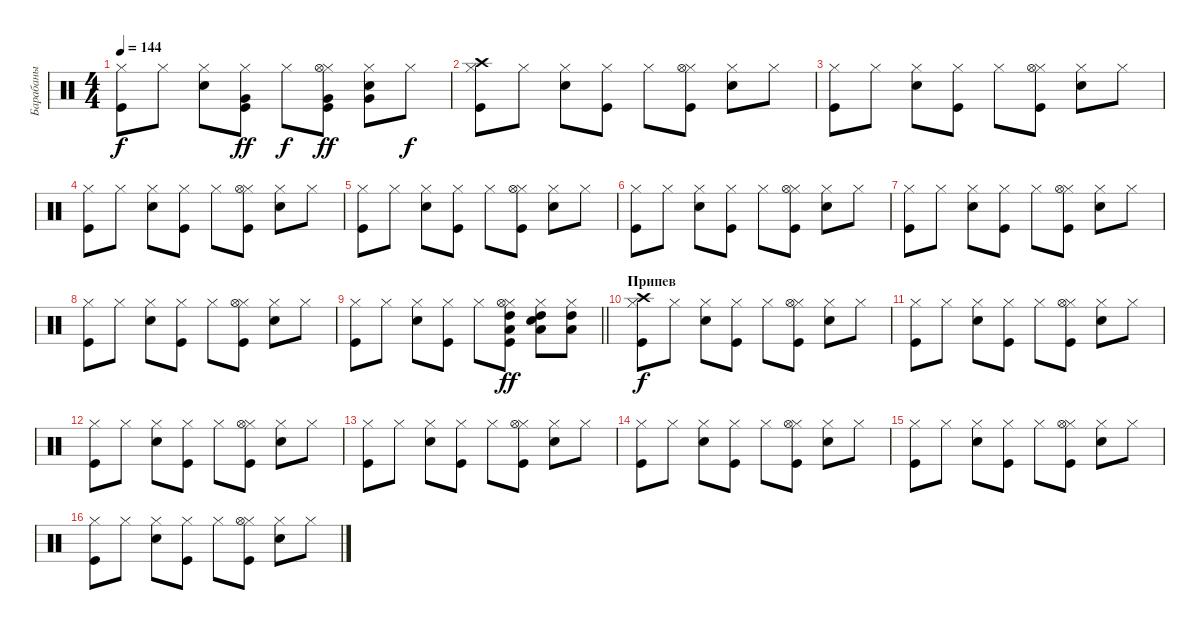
\track ("Барабаны" "Барабаны") {instrument percussion}
\staff {score}
\articulation defaults
\ts (4 4)
\tempo 144
\clef neutral
\ks c
("Kick (hit)" "Hi-Hat (closed)").8{dy f} "Hi-Hat (closed)".8 ("Snare (hit) 2" "Hi-Hat (closed)").8 ("Kick (hit)" "Hi-Hat (closed)" "Very Low Tom (hit)").8{dy ff} "Hi-Hat (closed)".8{dy f} ("Kick (hit)" "Hi-Hat (closed)" "Very Low Tom (hit)" "Hi-Hat (open)").8{dy ff} ("Snare (hit) 2" "Hi-Hat (closed)" "Very Low Tom (hit)").8 "Hi-Hat (closed)".8{dy f} |
("Kick (hit)" "Hi-Hat (closed)" "Crash high (hit)").8 "Hi-Hat (closed)".8 ("Snare (hit) 2" "Hi-Hat (closed)").8 ("Kick (hit)" "Hi-Hat (closed)").8 "Hi-Hat (closed)".8 ("Kick (hit)" "Hi-Hat (closed)" "Hi-Hat (open)").8 ("Snare (hit) 2" "Hi-Hat (closed)").8 "Hi-Hat (closed)".8 |
("Kick (hit)" "Hi-Hat (closed)").8 "Hi-Hat (closed)".8 ("Snare (hit) 2" "Hi-Hat (closed)").8 ("Kick (hit)" "Hi-Hat (closed)").8 "Hi-Hat (closed)".8 ("Kick (hit)" "Hi-Hat (closed)" "Hi-Hat (open)").8 ("Snare (hit) 2" "Hi-Hat (closed)").8 "Hi-Hat (closed)".8 |
("Kick (hit)" "Hi-Hat (closed)").8 "Hi-Hat (closed)".8 ("Snare (hit) 2" "Hi-Hat (closed)").8 ("Kick (hit)" "Hi-Hat (closed)").8 "Hi-Hat (closed)".8 ("Kick (hit)" "Hi-Hat (closed)" "Hi-Hat (open)").8 ("Snare (hit) 2" "Hi-Hat (closed)").8 "Hi-Hat (closed)".8 |
("Kick (hit)" "Hi-Hat (closed)").8 "Hi-Hat (closed)".8 ("Snare (hit) 2" "Hi-Hat (closed)").8 ("Kick (hit)" "Hi-Hat (closed)").8 "Hi-Hat (closed)".8 ("Kick (hit)" "Hi-Hat (closed)" "Hi-Hat (open)").8 ("Snare (hit) 2" "Hi-Hat (closed)").8 "Hi-Hat (closed)".8 |
("Kick (hit)" "Hi-Hat (closed)").8 "Hi-Hat (closed)".8 ("Snare (hit) 2" "Hi-Hat (closed)").8 ("Kick (hit)" "Hi-Hat (closed)").8 "Hi-Hat (closed)".8 ("Kick (hit)" "Hi-Hat (closed)" "Hi-Hat (open)").8 ("Snare (hit) 2" "Hi-Hat (closed)").8 "Hi-Hat (closed)".8 |
("Kick (hit)" "Hi-Hat (closed)").8 "Hi-Hat (closed)".8 ("Snare (hit) 2" "Hi-Hat (closed)").8 ("Kick (hit)" "Hi-Hat (closed)").8 "Hi-Hat (closed)".8 ("Kick (hit)" "Hi-Hat (closed)" "Hi-Hat (open)").8 ("Snare (hit) 2" "Hi-Hat (closed)").8 "Hi-Hat (closed)".8 |
("Kick (hit)" "Hi-Hat (closed)").8 "Hi-Hat (closed)".8 ("Snare (hit) 2" "Hi-Hat (closed)").8 ("Kick (hit)" "Hi-Hat (closed)").8 "Hi-Hat (closed)".8 ("Kick (hit)" "Hi-Hat (closed)" "Hi-Hat (open)").8 ("Snare (hit) 2" "Hi-Hat (closed)").8 "Hi-Hat (closed)".8 |
\barLineRight lightlight
("Kick (hit)" "Hi-Hat (closed)").8 "Hi-Hat (closed)".8 ("Snare (hit) 2" "Hi-Hat (closed)").8 ("Kick (hit)" "Hi-Hat (closed)").8 "Hi-Hat (closed)".8 ("Kick (hit)" "Hi-Hat (closed)" "Low Floor Tom (hit)" "High Tom (hit)" "Hi-Hat (open)").8{dy ff} ("Snare (hit) 2" "Hi-Hat (closed)" "Low Floor Tom (hit)" "High Tom (hit)").8 ("Hi-Hat (closed)" "Low Floor Tom (hit)" "High Tom (hit)").8 |
\section ("" "Припев")
("Kick (hit)" "Hi-Hat (closed)" "Crash high (hit)").8{dy f} "Hi-Hat (closed)".8 ("Snare (hit) 2" "Hi-Hat (closed)").8 ("Kick (hit)" "Hi-Hat (closed)").8 "Hi-Hat (closed)".8 ("Kick (hit)" "Hi-Hat (closed)" "Hi-Hat (open)").8 ("Snare (hit) 2" "Hi-Hat (closed)").8 "Hi-Hat (closed)".8 |
("Kick (hit)" "Hi-Hat (closed)").8 "Hi-Hat (closed)".8 ("Snare (hit) 2" "Hi-Hat (closed)").8 ("Kick (hit)" "Hi-Hat (closed)").8 "Hi-Hat (closed)".8 ("Kick (hit)" "Hi-Hat (closed)" "Hi-Hat (open)").8 ("Snare (hit) 2" "Hi-Hat (closed)").8 "Hi-Hat (closed)".8 |
("Kick (hit)" "Hi-Hat (closed)").8 "Hi-Hat (closed)".8 ("Snare (hit) 2" "Hi-Hat (closed)").8 ("Kick (hit)" "Hi-Hat (closed)").8 "Hi-Hat (closed)".8 ("Kick (hit)" "Hi-Hat (closed)" "Hi-Hat (open)").8 ("Snare (hit) 2" "Hi-Hat (closed)").8 "Hi-Hat (closed)".8 |
("Kick (hit)" "Hi-Hat (closed)").8 "Hi-Hat (closed)".8 ("Snare (hit) 2" "Hi-Hat (closed)").8 ("Kick (hit)" "Hi-Hat (closed)").8 "Hi-Hat (closed)".8 ("Kick (hit)" "Hi-Hat (closed)" "Hi-Hat (open)").8 ("Snare (hit) 2" "Hi-Hat (closed)").8 "Hi-Hat (closed)".8 |
("Kick (hit)" "Hi-Hat (closed)").8 "Hi-Hat (closed)".8 ("Snare (hit) 2" "Hi-Hat (closed)").8 ("Kick (hit)" "Hi-Hat (closed)").8 "Hi-Hat (closed)".8 ("Kick (hit)" "Hi-Hat (closed)" "Hi-Hat (open)").8 ("Snare (hit) 2" "Hi-Hat (closed)").8 "Hi-Hat (closed)".8 |
("Kick (hit)" "Hi-Hat (closed)").8 "Hi-Hat (closed)".8 ("Snare (hit) 2" "Hi-Hat (closed)").8 ("Kick (hit)" "Hi-Hat (closed)").8 "Hi-Hat (closed)".8 ("Kick (hit)" "Hi-Hat (closed)" "Hi-Hat (open)").8 ("Snare (hit) 2" "Hi-Hat (closed)").8 "Hi-Hat (closed)".8 |
("Kick (hit)" "Hi-Hat (closed)").8 "Hi-Hat (closed)".8 ("Snare (hit) 2" "Hi-Hat (closed)").8 ("Kick (hit)" "Hi-Hat (closed)").8 "Hi-Hat (closed)".8 ("Kick (hit)" "Hi-Hat (closed)" "Hi-Hat (open)").8 ("Snare (hit) 2" "Hi-Hat (closed)").8 "Hi-Hat (closed)".8
